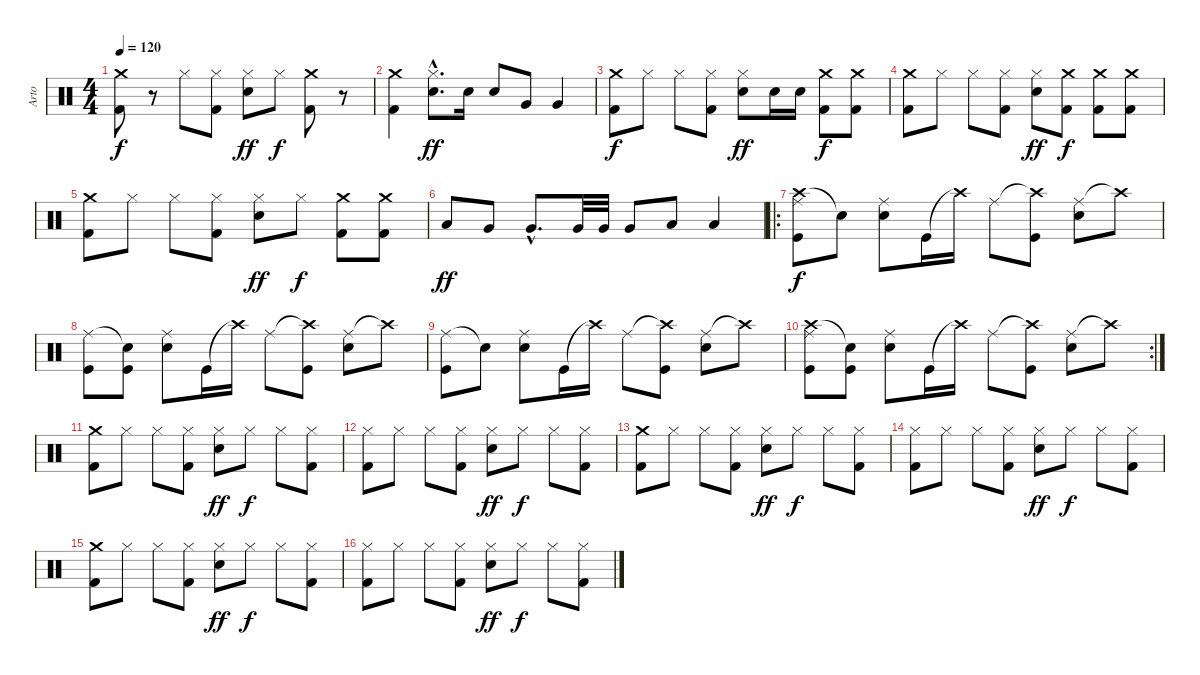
\track ("Arto" "Arto") {instrument percussion}
\staff {score}
\articulation defaults
\ts (4 4)
\tempo 120
\clef neutral
\ks c
("Crash medium (hit)" "Kick (hit) 2").8{dy f} r.8 "Hi-Hat (closed)".8 ("Hi-Hat (closed)" "Kick (hit) 2").8 ("Hi-Hat (closed)" "Snare (hit) 2").8{dy ff} "Hi-Hat (closed)".8{dy f} ("Crash medium (hit)" "Kick (hit) 2").8 r.8 |
("Crash medium (hit)" "Kick (hit) 2").4 ("Hi-Hat (closed)"{hac} "Snare (hit) 2"{hac}).8{d dy ff} "Snare (hit) 2".16 "Snare (hit) 2".8 "Very Low Tom (hit)".8 "Very Low Tom (hit)".4 |
("Crash medium (hit)" "Kick (hit) 2").8{dy f} "Hi-Hat (closed)".8 "Hi-Hat (closed)".8 ("Hi-Hat (closed)" "Kick (hit) 2").8 ("Hi-Hat (closed)" "Snare (hit) 2").8{dy ff} "Snare (hit) 2".16 "Snare (hit) 2".16 ("Crash medium (hit)" "Kick (hit) 2").8{dy f} ("Crash medium (hit)" "Kick (hit) 2").8 |
("Crash medium (hit)" "Kick (hit) 2").8 "Hi-Hat (closed)".8 "Hi-Hat (closed)".8 ("Hi-Hat (closed)" "Kick (hit) 2").8 ("Hi-Hat (closed)" "Snare (hit) 2").8{dy ff} ("Crash medium (hit)" "Kick (hit) 2").8{dy f} ("Crash medium (hit)" "Kick (hit) 2").8 ("Crash medium (hit)" "Kick (hit) 2").8 |
("Crash medium (hit)" "Kick (hit) 2").8 "Hi-Hat (closed)".8 "Hi-Hat (closed)".8 ("Hi-Hat (closed)" "Kick (hit) 2").8 ("Hi-Hat (closed)" "Snare (hit) 2").8{dy ff} "Hi-Hat (closed)".8{dy f} ("Crash medium (hit)" "Kick (hit) 2").8 ("Crash medium (hit)" "Kick (hit) 2").8 |
"Low Tom (hit)".8{dy ff} "Very Low Tom (hit)".8 "Very Low Tom (hit)"{hac}.8{d} "Very Low Tom (hit)".32 "Very Low Tom (hit)".32 "Very Low Tom (hit)".8 "Low Floor Tom (hit)".8 "Low Floor Tom (hit)".4 |
\ro
("Crash high (hit)" "Ride (middle)" "Kick (hit)").8{dy f} "Snare (hit)"{t}.8 ("Ride (middle)" "Snare (hit) 2").8 "Kick (hit)".16 "Crash high (hit)"{t}.16 "Ride (middle)".8 ("Crash high (hit)"{t} "Kick (hit)").8 ("Ride (middle)" "Snare (hit) 2").8 "Crash high (hit)"{t}.8 |
("Ride (middle)" "Kick (hit)").8 ("Snare (hit)"{t} "Kick (hit)").8 ("Ride (middle)" "Snare (hit) 2").8 "Kick (hit)".16 "Crash high (hit)"{t}.16 "Ride (middle)".8 ("Crash high (hit)"{t} "Kick (hit)").8 ("Ride (middle)" "Snare (hit) 2").8 "Crash high (hit)"{t}.8 |
("Ride (middle)" "Kick (hit)").8 "Snare (hit)"{t}.8 ("Ride (middle)" "Snare (hit) 2").8 "Kick (hit)".16 "Crash high (hit)"{t}.16 "Ride (middle)".8 ("Crash high (hit)"{t} "Kick (hit)").8 ("Ride (middle)" "Snare (hit) 2").8 "Crash high (hit)"{t}.8 |
\rc 2
("Crash high (hit)" "Ride (middle)" "Kick (hit)").8 ("Snare (hit)"{t} "Kick (hit)").8 ("Ride (middle)" "Snare (hit) 2").8 "Kick (hit)".16 "Crash high (hit)"{t}.16 "Ride (middle)".8 ("Crash high (hit)"{t} "Kick (hit)").8 ("Ride (middle)" "Snare (hit) 2").8 "Crash high (hit)"{t}.8 |
("Crash medium (hit)" "Kick (hit) 2").8 "Hi-Hat (closed)".8 "Hi-Hat (closed)".8 ("Hi-Hat (closed)" "Kick (hit) 2").8 ("Hi-Hat (closed)" "Snare (hit) 2").8{dy ff} "Hi-Hat (closed)".8{dy f} "Hi-Hat (closed)".8 ("Hi-Hat (closed)" "Kick (hit) 2").8 |
("Hi-Hat (closed)" "Kick (hit) 2").8 "Hi-Hat (closed)".8 "Hi-Hat (closed)".8 ("Hi-Hat (closed)" "Kick (hit) 2").8 ("Hi-Hat (closed)" "Snare (hit) 2").8{dy ff} "Hi-Hat (closed)".8{dy f} "Hi-Hat (closed)".8 ("Hi-Hat (closed)" "Kick (hit) 2").8 |
("Crash medium (hit)" "Kick (hit) 2").8 "Hi-Hat (closed)".8 "Hi-Hat (closed)".8 ("Hi-Hat (closed)" "Kick (hit) 2").8 ("Hi-Hat (closed)" "Snare (hit) 2").8{dy ff} "Hi-Hat (closed)".8{dy f} "Hi-Hat (closed)".8 ("Hi-Hat (closed)" "Kick (hit) 2").8 |
("Hi-Hat (closed)" "Kick (hit) 2").8 "Hi-Hat (closed)".8 "Hi-Hat (closed)".8 ("Hi-Hat (closed)" "Kick (hit) 2").8 ("Hi-Hat (closed)" "Snare (hit) 2").8{dy ff} "Hi-Hat (closed)".8{dy f} "Hi-Hat (closed)".8 ("Hi-Hat (closed)" "Kick (hit) 2").8 |
("Crash medium (hit)" "Kick (hit) 2").8 "Hi-Hat (closed)".8 "Hi-Hat (closed)".8 ("Hi-Hat (closed)" "Kick (hit) 2").8 ("Hi-Hat (closed)" "Snare (hit) 2").8{dy ff} "Hi-Hat (closed)".8{dy f} "Hi-Hat (closed)".8 ("Hi-Hat (closed)" "Kick (hit) 2").8 |
("Hi-Hat (closed)" "Kick (hit) 2").8 "Hi-Hat (closed)".8 "Hi-Hat (closed)".8 ("Hi-Hat (closed)" "Kick (hit) 2").8 ("Hi-Hat (closed)" "Snare (hit) 2").8{dy ff} "Hi-Hat (closed)".8{dy f} "Hi-Hat (closed)".8 ("Hi-Hat (closed)" "Kick (hit) 2").8
